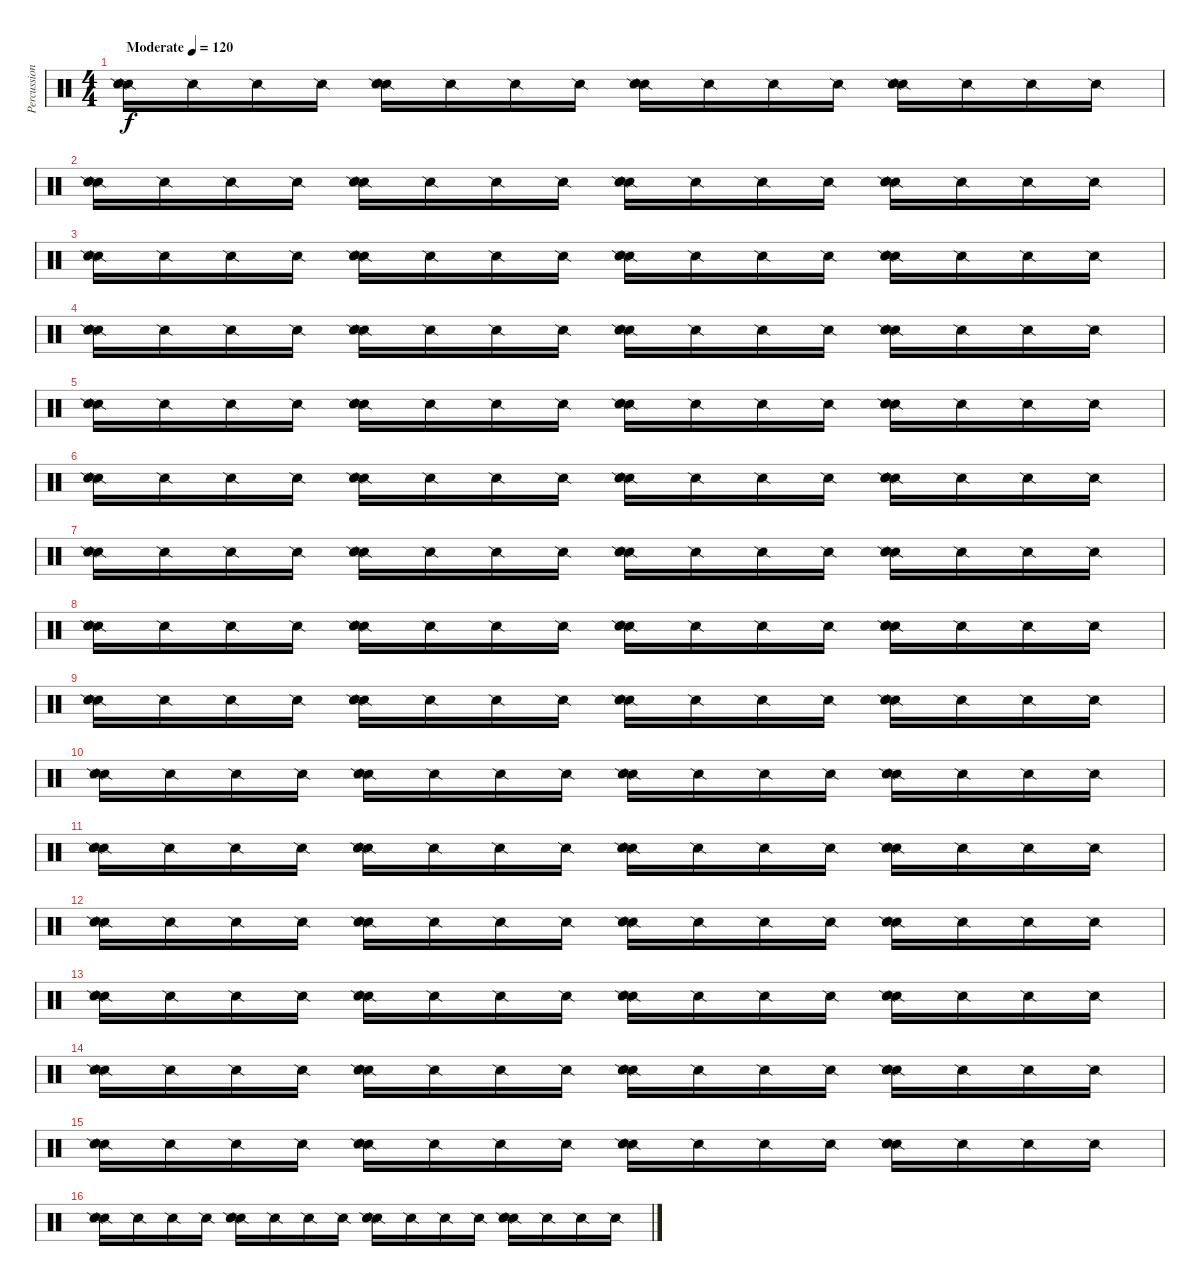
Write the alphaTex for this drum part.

\track ("Percussioni" "Percussion") {instrument percussion}
\staff {score}
\articulation defaults
\ts (4 4)
\tempo (120 "Moderate")
\clef neutral
\ks c
("Snare (side stick) 2" "Snare (side stick) 2" "Metronome (bell)").16{dy f} "Snare (side stick) 2".16 "Snare (side stick) 2".16 "Snare (side stick) 2".16 ("Snare (side stick) 2" "Snare (side stick) 2" "Metronome (bell)").16 "Snare (side stick) 2".16 "Snare (side stick) 2".16 "Snare (side stick) 2".16 ("Snare (side stick) 2" "Snare (side stick) 2" "Metronome (bell)").16 "Snare (side stick) 2".16 "Snare (side stick) 2".16 "Snare (side stick) 2".16 ("Snare (side stick) 2" "Snare (side stick) 2" "Metronome (bell)").16 "Snare (side stick) 2".16 "Snare (side stick) 2".16 "Snare (side stick) 2".16 |
("Snare (side stick) 2" "Snare (side stick) 2" "Metronome (bell)").16 "Snare (side stick) 2".16 "Snare (side stick) 2".16 "Snare (side stick) 2".16 ("Snare (side stick) 2" "Snare (side stick) 2" "Metronome (bell)").16 "Snare (side stick) 2".16 "Snare (side stick) 2".16 "Snare (side stick) 2".16 ("Snare (side stick) 2" "Snare (side stick) 2" "Metronome (bell)").16 "Snare (side stick) 2".16 "Snare (side stick) 2".16 "Snare (side stick) 2".16 ("Snare (side stick) 2" "Snare (side stick) 2" "Metronome (bell)").16 "Snare (side stick) 2".16 "Snare (side stick) 2".16 "Snare (side stick) 2".16 |
("Snare (side stick) 2" "Snare (side stick) 2" "Metronome (bell)").16 "Snare (side stick) 2".16 "Snare (side stick) 2".16 "Snare (side stick) 2".16 ("Snare (side stick) 2" "Snare (side stick) 2" "Metronome (bell)").16 "Snare (side stick) 2".16 "Snare (side stick) 2".16 "Snare (side stick) 2".16 ("Snare (side stick) 2" "Snare (side stick) 2" "Metronome (bell)").16 "Snare (side stick) 2".16 "Snare (side stick) 2".16 "Snare (side stick) 2".16 ("Snare (side stick) 2" "Snare (side stick) 2" "Metronome (bell)").16 "Snare (side stick) 2".16 "Snare (side stick) 2".16 "Snare (side stick) 2".16 |
("Snare (side stick) 2" "Snare (side stick) 2" "Metronome (bell)").16 "Snare (side stick) 2".16 "Snare (side stick) 2".16 "Snare (side stick) 2".16 ("Snare (side stick) 2" "Snare (side stick) 2" "Metronome (bell)").16 "Snare (side stick) 2".16 "Snare (side stick) 2".16 "Snare (side stick) 2".16 ("Snare (side stick) 2" "Snare (side stick) 2" "Metronome (bell)").16 "Snare (side stick) 2".16 "Snare (side stick) 2".16 "Snare (side stick) 2".16 ("Snare (side stick) 2" "Snare (side stick) 2" "Metronome (bell)").16 "Snare (side stick) 2".16 "Snare (side stick) 2".16 "Snare (side stick) 2".16 |
("Snare (side stick) 2" "Snare (side stick) 2" "Metronome (bell)").16 "Snare (side stick) 2".16 "Snare (side stick) 2".16 "Snare (side stick) 2".16 ("Snare (side stick) 2" "Snare (side stick) 2" "Metronome (bell)").16 "Snare (side stick) 2".16 "Snare (side stick) 2".16 "Snare (side stick) 2".16 ("Snare (side stick) 2" "Snare (side stick) 2" "Metronome (bell)").16 "Snare (side stick) 2".16 "Snare (side stick) 2".16 "Snare (side stick) 2".16 ("Snare (side stick) 2" "Snare (side stick) 2" "Metronome (bell)").16 "Snare (side stick) 2".16 "Snare (side stick) 2".16 "Snare (side stick) 2".16 |
("Snare (side stick) 2" "Snare (side stick) 2" "Metronome (bell)").16 "Snare (side stick) 2".16 "Snare (side stick) 2".16 "Snare (side stick) 2".16 ("Snare (side stick) 2" "Snare (side stick) 2" "Metronome (bell)").16 "Snare (side stick) 2".16 "Snare (side stick) 2".16 "Snare (side stick) 2".16 ("Snare (side stick) 2" "Snare (side stick) 2" "Metronome (bell)").16 "Snare (side stick) 2".16 "Snare (side stick) 2".16 "Snare (side stick) 2".16 ("Snare (side stick) 2" "Snare (side stick) 2" "Metronome (bell)").16 "Snare (side stick) 2".16 "Snare (side stick) 2".16 "Snare (side stick) 2".16 |
("Snare (side stick) 2" "Snare (side stick) 2" "Metronome (bell)").16 "Snare (side stick) 2".16 "Snare (side stick) 2".16 "Snare (side stick) 2".16 ("Snare (side stick) 2" "Snare (side stick) 2" "Metronome (bell)").16 "Snare (side stick) 2".16 "Snare (side stick) 2".16 "Snare (side stick) 2".16 ("Snare (side stick) 2" "Snare (side stick) 2" "Metronome (bell)").16 "Snare (side stick) 2".16 "Snare (side stick) 2".16 "Snare (side stick) 2".16 ("Snare (side stick) 2" "Snare (side stick) 2" "Metronome (bell)").16 "Snare (side stick) 2".16 "Snare (side stick) 2".16 "Snare (side stick) 2".16 |
("Snare (side stick) 2" "Snare (side stick) 2" "Metronome (bell)").16 "Snare (side stick) 2".16 "Snare (side stick) 2".16 "Snare (side stick) 2".16 ("Snare (side stick) 2" "Snare (side stick) 2" "Metronome (bell)").16 "Snare (side stick) 2".16 "Snare (side stick) 2".16 "Snare (side stick) 2".16 ("Snare (side stick) 2" "Snare (side stick) 2" "Metronome (bell)").16 "Snare (side stick) 2".16 "Snare (side stick) 2".16 "Snare (side stick) 2".16 ("Snare (side stick) 2" "Snare (side stick) 2" "Metronome (bell)").16 "Snare (side stick) 2".16 "Snare (side stick) 2".16 "Snare (side stick) 2".16 |
("Snare (side stick) 2" "Snare (side stick) 2" "Metronome (bell)").16 "Snare (side stick) 2".16 "Snare (side stick) 2".16 "Snare (side stick) 2".16 ("Snare (side stick) 2" "Snare (side stick) 2" "Metronome (bell)").16 "Snare (side stick) 2".16 "Snare (side stick) 2".16 "Snare (side stick) 2".16 ("Snare (side stick) 2" "Snare (side stick) 2" "Metronome (bell)").16 "Snare (side stick) 2".16 "Snare (side stick) 2".16 "Snare (side stick) 2".16 ("Snare (side stick) 2" "Snare (side stick) 2" "Metronome (bell)").16 "Snare (side stick) 2".16 "Snare (side stick) 2".16 "Snare (side stick) 2".16 |
("Snare (side stick) 2" "Snare (side stick) 2" "Metronome (bell)").16 "Snare (side stick) 2".16 "Snare (side stick) 2".16 "Snare (side stick) 2".16 ("Snare (side stick) 2" "Snare (side stick) 2" "Metronome (bell)").16 "Snare (side stick) 2".16 "Snare (side stick) 2".16 "Snare (side stick) 2".16 ("Snare (side stick) 2" "Snare (side stick) 2" "Metronome (bell)").16 "Snare (side stick) 2".16 "Snare (side stick) 2".16 "Snare (side stick) 2".16 ("Snare (side stick) 2" "Snare (side stick) 2" "Metronome (bell)").16 "Snare (side stick) 2".16 "Snare (side stick) 2".16 "Snare (side stick) 2".16 |
("Snare (side stick) 2" "Snare (side stick) 2" "Metronome (bell)").16 "Snare (side stick) 2".16 "Snare (side stick) 2".16 "Snare (side stick) 2".16 ("Snare (side stick) 2" "Snare (side stick) 2" "Metronome (bell)").16 "Snare (side stick) 2".16 "Snare (side stick) 2".16 "Snare (side stick) 2".16 ("Snare (side stick) 2" "Snare (side stick) 2" "Metronome (bell)").16 "Snare (side stick) 2".16 "Snare (side stick) 2".16 "Snare (side stick) 2".16 ("Snare (side stick) 2" "Snare (side stick) 2" "Metronome (bell)").16 "Snare (side stick) 2".16 "Snare (side stick) 2".16 "Snare (side stick) 2".16 |
("Snare (side stick) 2" "Snare (side stick) 2" "Metronome (bell)").16 "Snare (side stick) 2".16 "Snare (side stick) 2".16 "Snare (side stick) 2".16 ("Snare (side stick) 2" "Snare (side stick) 2" "Metronome (bell)").16 "Snare (side stick) 2".16 "Snare (side stick) 2".16 "Snare (side stick) 2".16 ("Snare (side stick) 2" "Snare (side stick) 2" "Metronome (bell)").16 "Snare (side stick) 2".16 "Snare (side stick) 2".16 "Snare (side stick) 2".16 ("Snare (side stick) 2" "Snare (side stick) 2" "Metronome (bell)").16 "Snare (side stick) 2".16 "Snare (side stick) 2".16 "Snare (side stick) 2".16 |
("Snare (side stick) 2" "Snare (side stick) 2" "Metronome (bell)").16 "Snare (side stick) 2".16 "Snare (side stick) 2".16 "Snare (side stick) 2".16 ("Snare (side stick) 2" "Snare (side stick) 2" "Metronome (bell)").16 "Snare (side stick) 2".16 "Snare (side stick) 2".16 "Snare (side stick) 2".16 ("Snare (side stick) 2" "Snare (side stick) 2" "Metronome (bell)").16 "Snare (side stick) 2".16 "Snare (side stick) 2".16 "Snare (side stick) 2".16 ("Snare (side stick) 2" "Snare (side stick) 2" "Metronome (bell)").16 "Snare (side stick) 2".16 "Snare (side stick) 2".16 "Snare (side stick) 2".16 |
("Snare (side stick) 2" "Snare (side stick) 2" "Metronome (bell)").16 "Snare (side stick) 2".16 "Snare (side stick) 2".16 "Snare (side stick) 2".16 ("Snare (side stick) 2" "Snare (side stick) 2" "Metronome (bell)").16 "Snare (side stick) 2".16 "Snare (side stick) 2".16 "Snare (side stick) 2".16 ("Snare (side stick) 2" "Snare (side stick) 2" "Metronome (bell)").16 "Snare (side stick) 2".16 "Snare (side stick) 2".16 "Snare (side stick) 2".16 ("Snare (side stick) 2" "Snare (side stick) 2" "Metronome (bell)").16 "Snare (side stick) 2".16 "Snare (side stick) 2".16 "Snare (side stick) 2".16 |
("Snare (side stick) 2" "Snare (side stick) 2" "Metronome (bell)").16 "Snare (side stick) 2".16 "Snare (side stick) 2".16 "Snare (side stick) 2".16 ("Snare (side stick) 2" "Snare (side stick) 2" "Metronome (bell)").16 "Snare (side stick) 2".16 "Snare (side stick) 2".16 "Snare (side stick) 2".16 ("Snare (side stick) 2" "Snare (side stick) 2" "Metronome (bell)").16 "Snare (side stick) 2".16 "Snare (side stick) 2".16 "Snare (side stick) 2".16 ("Snare (side stick) 2" "Snare (side stick) 2" "Metronome (bell)").16 "Snare (side stick) 2".16 "Snare (side stick) 2".16 "Snare (side stick) 2".16 |
("Snare (side stick) 2" "Snare (side stick) 2" "Metronome (bell)").16 "Snare (side stick) 2".16 "Snare (side stick) 2".16 "Snare (side stick) 2".16 ("Snare (side stick) 2" "Snare (side stick) 2" "Metronome (bell)").16 "Snare (side stick) 2".16 "Snare (side stick) 2".16 "Snare (side stick) 2".16 ("Snare (side stick) 2" "Snare (side stick) 2" "Metronome (bell)").16 "Snare (side stick) 2".16 "Snare (side stick) 2".16 "Snare (side stick) 2".16 ("Snare (side stick) 2" "Snare (side stick) 2" "Metronome (bell)").16 "Snare (side stick) 2".16 "Snare (side stick) 2".16 "Snare (side stick) 2".16
